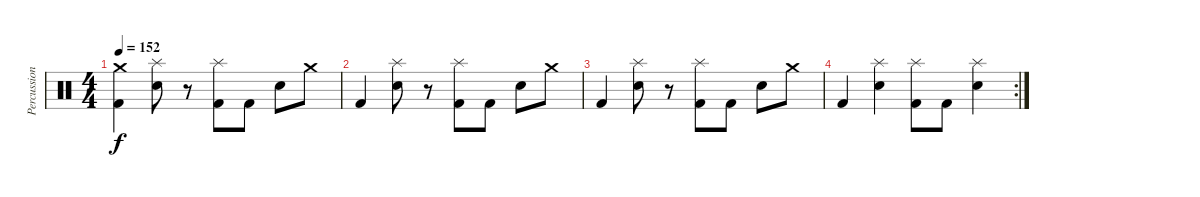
\track ("Percussion" "Percussion") {instrument percussion}
\staff {score}
\articulation defaults
\ts (4 4)
\tempo 152
\clef neutral
\ks c
("Crash medium (hit)" "Kick (hit) 2").4{dy f} ("Splash (hit)" "Snare (hit) 2").8 r.8 ("Splash (hit)" "Kick (hit) 2").8 "Kick (hit) 2".8 "Snare (hit) 2".8 "Crash medium (hit)".8 |
"Kick (hit) 2".4 ("Splash (hit)" "Snare (hit) 2").8 r.8 ("Splash (hit)" "Kick (hit) 2").8 "Kick (hit) 2".8 "Snare (hit) 2".8 "Crash medium (hit)".8 |
"Kick (hit) 2".4 ("Splash (hit)" "Snare (hit) 2").8 r.8 ("Splash (hit)" "Kick (hit) 2").8 "Kick (hit) 2".8 "Snare (hit) 2".8 "Crash medium (hit)".8 |
\rc 2 "Kick (hit) 2".4
("Splash (hit)" "Snare (hit) 2").4 ("Splash (hit)" "Kick (hit) 2").8 "Kick (hit) 2".8 ("Splash (hit)" "Snare (hit) 2").4
